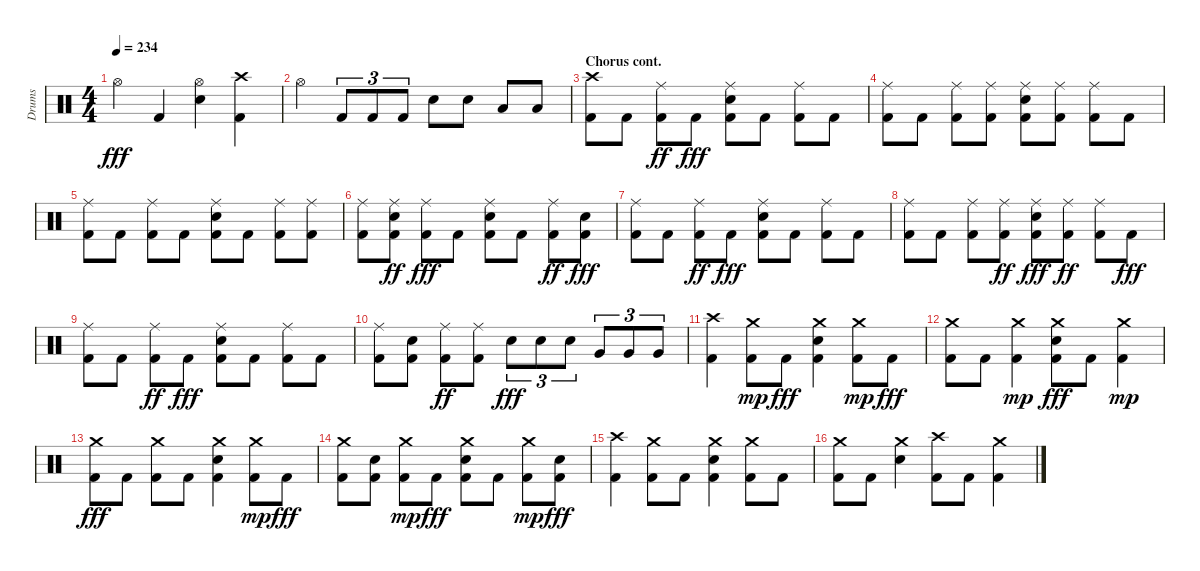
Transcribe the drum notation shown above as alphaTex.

\track ("Drums" "Drums") {instrument percussion}
\staff {score}
\articulation defaults
\ts (4 4)
\tempo 234
\clef neutral
\ks aminor "Hi-Hat (open)".4{dy fff} "Kick (hit) 2".4
("Hi-Hat (open)" "Snare (hit) 2").4 ("Kick (hit) 2" "Crash high (hit)").4 |
"Hi-Hat (open)".4 "Kick (hit) 2".8{tu (3 2)} "Kick (hit) 2".8{tu (3 2)} "Kick (hit) 2".8{tu (3 2)} "Snare (hit) 2".8 "Snare (hit) 2".8 "Low Floor Tom (hit)".8 "Low Floor Tom (hit)".8 |
\section ("" "Chorus cont.")
("Kick (hit) 2" "Crash high (hit)").8 "Kick (hit) 2".8 ("Kick (hit) 2" "Ride (middle)").8{dy ff} "Kick (hit) 2".8{dy fff} ("Snare (hit) 2" "Kick (hit) 2" "Ride (middle)").8 "Kick (hit) 2".8 ("Ride (middle)" "Kick (hit) 2").8 "Kick (hit) 2".8 |
("Ride (middle)" "Kick (hit) 2").8 "Kick (hit) 2".8 ("Ride (middle)" "Kick (hit) 2").8 ("Ride (middle)" "Kick (hit) 2").8 ("Snare (hit) 2" "Ride (middle)" "Kick (hit) 2").8 ("Ride (middle)" "Kick (hit) 2").8 ("Kick (hit) 2" "Ride (middle)").8 "Kick (hit) 2".8 |
("Kick (hit) 2" "Ride (middle)").8 "Kick (hit) 2".8 ("Kick (hit) 2" "Ride (middle)").8 "Kick (hit) 2".8 ("Kick (hit) 2" "Snare (hit) 2" "Ride (middle)").8 "Kick (hit) 2".8 ("Kick (hit) 2" "Ride (middle)").8 ("Ride (middle)" "Kick (hit) 2").8 |
("Ride (middle)" "Kick (hit) 2").8 ("Ride (middle)" "Snare (hit) 2" "Kick (hit) 2").8{dy ff} ("Kick (hit) 2" "Ride (middle)").8{dy fff} "Kick (hit) 2".8 ("Snare (hit) 2" "Ride (middle)" "Kick (hit) 2").8 "Kick (hit) 2".8 ("Ride (middle)" "Kick (hit) 2").8{dy ff} ("Kick (hit) 2" "Snare (hit) 2").8{dy fff} |
("Ride (middle)" "Kick (hit) 2").8 "Kick (hit) 2".8 ("Kick (hit) 2" "Ride (middle)").8{dy ff} "Kick (hit) 2".8{dy fff} ("Snare (hit) 2" "Kick (hit) 2" "Ride (middle)").8 "Kick (hit) 2".8 ("Kick (hit) 2" "Ride (middle)").8 "Kick (hit) 2".8 |
("Ride (middle)" "Kick (hit) 2").8 "Kick (hit) 2".8 ("Kick (hit) 2" "Ride (middle)").8 ("Ride (middle)" "Kick (hit) 2").8{dy ff} ("Ride (middle)" "Kick (hit) 2" "Snare (hit) 2").8{dy fff} ("Ride (middle)" "Kick (hit) 2").8{dy ff} ("Ride (middle)" "Kick (hit) 2").8 "Kick (hit) 2".8{dy fff} |
("Ride (middle)" "Kick (hit) 2").8 "Kick (hit) 2".8 ("Kick (hit) 2" "Ride (middle)").8{dy ff} "Kick (hit) 2".8{dy fff} ("Snare (hit) 2" "Ride (middle)" "Kick (hit) 2").8 "Kick (hit) 2".8 ("Ride (middle)" "Kick (hit) 2").8 "Kick (hit) 2".8 |
("Ride (middle)" "Kick (hit) 2").8 ("Kick (hit) 2" "Snare (hit) 2").8 ("Ride (middle)" "Kick (hit) 2").8{dy ff} ("Kick (hit) 2" "Ride (middle)").8 "Snare (hit) 2".8{tu (3 2) dy fff} "Snare (hit) 2".8{tu (3 2)} "Snare (hit) 2".8{tu (3 2)} "Very Low Tom (hit)".8{tu (3 2)} "Very Low Tom (hit)".8{tu (3 2)} "Very Low Tom (hit)".8{tu (3 2)} |
("Crash high (hit)" "Kick (hit) 2").4 ("Crash medium (hit)" "Kick (hit) 2").8{dy mp} "Kick (hit) 2".8{dy fff} ("Kick (hit) 2" "Snare (hit) 2" "Crash medium (hit)").4 ("Crash medium (hit)" "Kick (hit) 2").8{dy mp} "Kick (hit) 2".8{dy fff} |
("Crash medium (hit)" "Kick (hit) 2").8 "Kick (hit) 2".8 ("Crash medium (hit)" "Kick (hit) 2").4{dy mp} ("Snare (hit) 2" "Kick (hit) 2" "Crash medium (hit)").8{dy fff} "Kick (hit) 2".8 ("Kick (hit) 2" "Crash medium (hit)").4{dy mp} |
("Kick (hit) 2" "Crash medium (hit)").8{dy fff} "Kick (hit) 2".8 ("Kick (hit) 2" "Crash medium (hit)").8 "Kick (hit) 2".8 ("Crash medium (hit)" "Kick (hit) 2" "Snare (hit) 2").4 ("Crash medium (hit)" "Kick (hit) 2").8{dy mp} "Kick (hit) 2".8{dy fff} |
("Crash medium (hit)" "Kick (hit) 2").8 ("Kick (hit) 2" "Snare (hit) 2").8 ("Crash medium (hit)" "Kick (hit) 2").8{dy mp} "Kick (hit) 2".8{dy fff} ("Snare (hit) 2" "Kick (hit) 2" "Crash medium (hit)").8 "Kick (hit) 2".8 ("Crash medium (hit)" "Kick (hit) 2").8{dy mp} ("Snare (hit) 2" "Kick (hit) 2").8{dy fff} |
("Kick (hit) 2" "Crash high (hit)").4 ("Crash medium (hit)" "Kick (hit) 2").8 "Kick (hit) 2".8 ("Crash medium (hit)" "Snare (hit) 2" "Kick (hit) 2").4 ("Kick (hit) 2" "Crash medium (hit)").8 "Kick (hit) 2".8 |
("Crash medium (hit)" "Kick (hit) 2").8 "Kick (hit) 2".8 ("Crash medium (hit)" "Snare (hit) 2").4 ("Kick (hit) 2" "Crash high (hit)").8 "Kick (hit) 2".8 ("Kick (hit) 2" "Crash medium (hit)").4
